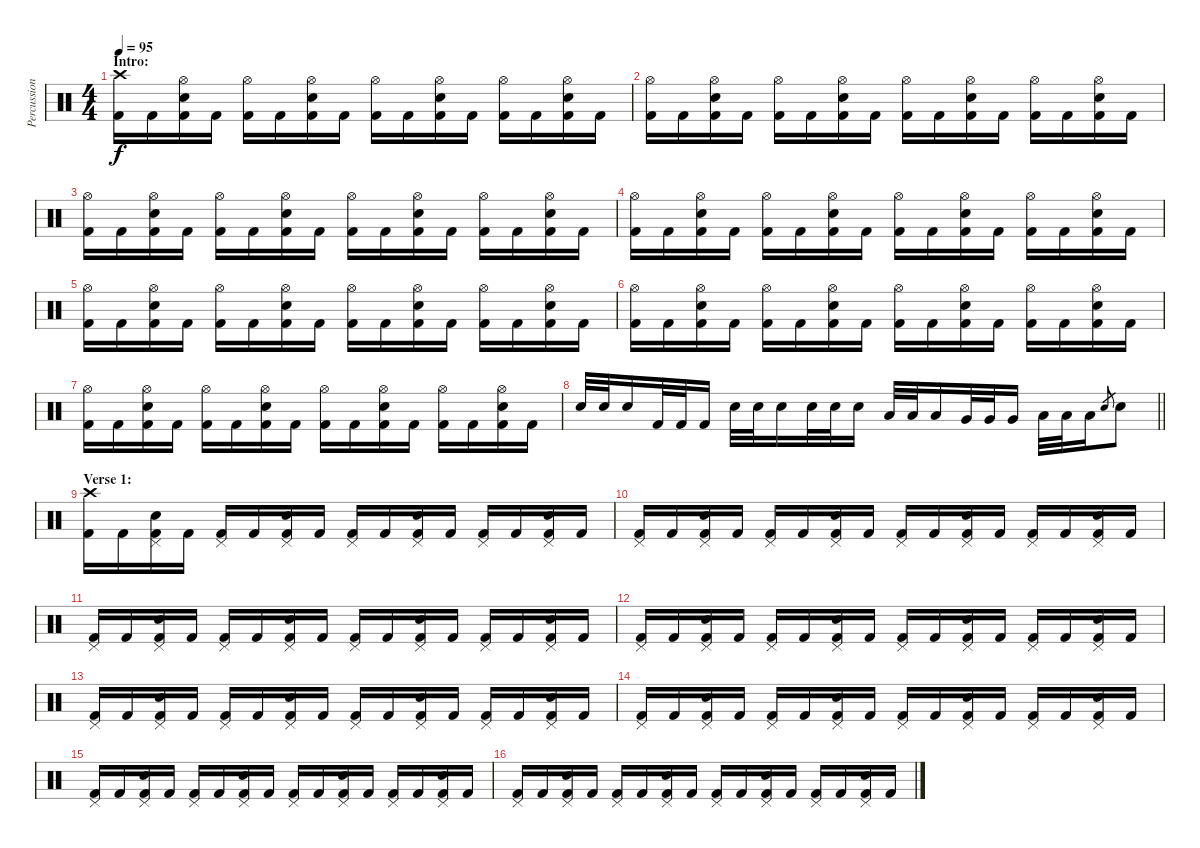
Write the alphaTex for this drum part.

\track ("Percussion" "Percussion") {instrument percussion}
\staff {score}
\articulation defaults
\ts (4 4)
\section ("" "Intro:")
\tempo 95
\clef neutral
\ks c
("Crash high (hit)" "Kick (hit) 2").16{dy f} "Kick (hit) 2".16 ("Hi-Hat (open)" "Electric Snare (hit)" "Kick (hit) 2").16 "Kick (hit) 2".16 ("Hi-Hat (open)" "Kick (hit) 2").16 "Kick (hit) 2".16 ("Hi-Hat (open)" "Electric Snare (hit)" "Kick (hit) 2").16 "Kick (hit) 2".16 ("Hi-Hat (open)" "Kick (hit) 2").16 "Kick (hit) 2".16 ("Hi-Hat (open)" "Electric Snare (hit)" "Kick (hit) 2").16 "Kick (hit) 2".16 ("Hi-Hat (open)" "Kick (hit) 2").16 "Kick (hit) 2".16 ("Hi-Hat (open)" "Electric Snare (hit)" "Kick (hit) 2").16 "Kick (hit) 2".16 |
("Hi-Hat (open)" "Kick (hit) 2").16 "Kick (hit) 2".16 ("Hi-Hat (open)" "Electric Snare (hit)" "Kick (hit) 2").16 "Kick (hit) 2".16 ("Hi-Hat (open)" "Kick (hit) 2").16 "Kick (hit) 2".16 ("Hi-Hat (open)" "Electric Snare (hit)" "Kick (hit) 2").16 "Kick (hit) 2".16 ("Hi-Hat (open)" "Kick (hit) 2").16 "Kick (hit) 2".16 ("Hi-Hat (open)" "Electric Snare (hit)" "Kick (hit) 2").16 "Kick (hit) 2".16 ("Hi-Hat (open)" "Kick (hit) 2").16 "Kick (hit) 2".16 ("Hi-Hat (open)" "Electric Snare (hit)" "Kick (hit) 2").16 "Kick (hit) 2".16 |
("Hi-Hat (open)" "Kick (hit) 2").16 "Kick (hit) 2".16 ("Hi-Hat (open)" "Electric Snare (hit)" "Kick (hit) 2").16 "Kick (hit) 2".16 ("Hi-Hat (open)" "Kick (hit) 2").16 "Kick (hit) 2".16 ("Hi-Hat (open)" "Electric Snare (hit)" "Kick (hit) 2").16 "Kick (hit) 2".16 ("Hi-Hat (open)" "Kick (hit) 2").16 "Kick (hit) 2".16 ("Hi-Hat (open)" "Electric Snare (hit)" "Kick (hit) 2").16 "Kick (hit) 2".16 ("Hi-Hat (open)" "Kick (hit) 2").16 "Kick (hit) 2".16 ("Hi-Hat (open)" "Electric Snare (hit)" "Kick (hit) 2").16 "Kick (hit) 2".16 |
("Hi-Hat (open)" "Kick (hit) 2").16 "Kick (hit) 2".16 ("Hi-Hat (open)" "Electric Snare (hit)" "Kick (hit) 2").16 "Kick (hit) 2".16 ("Hi-Hat (open)" "Kick (hit) 2").16 "Kick (hit) 2".16 ("Hi-Hat (open)" "Electric Snare (hit)" "Kick (hit) 2").16 "Kick (hit) 2".16 ("Hi-Hat (open)" "Kick (hit) 2").16 "Kick (hit) 2".16 ("Hi-Hat (open)" "Electric Snare (hit)" "Kick (hit) 2").16 "Kick (hit) 2".16 ("Hi-Hat (open)" "Kick (hit) 2").16 "Kick (hit) 2".16 ("Hi-Hat (open)" "Electric Snare (hit)" "Kick (hit) 2").16 "Kick (hit) 2".16 |
("Hi-Hat (open)" "Kick (hit) 2").16 "Kick (hit) 2".16 ("Hi-Hat (open)" "Electric Snare (hit)" "Kick (hit) 2").16 "Kick (hit) 2".16 ("Hi-Hat (open)" "Kick (hit) 2").16 "Kick (hit) 2".16 ("Hi-Hat (open)" "Electric Snare (hit)" "Kick (hit) 2").16 "Kick (hit) 2".16 ("Hi-Hat (open)" "Kick (hit) 2").16 "Kick (hit) 2".16 ("Hi-Hat (open)" "Electric Snare (hit)" "Kick (hit) 2").16 "Kick (hit) 2".16 ("Hi-Hat (open)" "Kick (hit) 2").16 "Kick (hit) 2".16 ("Hi-Hat (open)" "Electric Snare (hit)" "Kick (hit) 2").16 "Kick (hit) 2".16 |
("Hi-Hat (open)" "Kick (hit) 2").16 "Kick (hit) 2".16 ("Hi-Hat (open)" "Electric Snare (hit)" "Kick (hit) 2").16 "Kick (hit) 2".16 ("Hi-Hat (open)" "Kick (hit) 2").16 "Kick (hit) 2".16 ("Hi-Hat (open)" "Electric Snare (hit)" "Kick (hit) 2").16 "Kick (hit) 2".16 ("Hi-Hat (open)" "Kick (hit) 2").16 "Kick (hit) 2".16 ("Hi-Hat (open)" "Electric Snare (hit)" "Kick (hit) 2").16 "Kick (hit) 2".16 ("Hi-Hat (open)" "Kick (hit) 2").16 "Kick (hit) 2".16 ("Hi-Hat (open)" "Electric Snare (hit)" "Kick (hit) 2").16 "Kick (hit) 2".16 |
("Hi-Hat (open)" "Kick (hit) 2").16 "Kick (hit) 2".16 ("Hi-Hat (open)" "Electric Snare (hit)" "Kick (hit) 2").16 "Kick (hit) 2".16 ("Hi-Hat (open)" "Kick (hit) 2").16 "Kick (hit) 2".16 ("Hi-Hat (open)" "Electric Snare (hit)" "Kick (hit) 2").16 "Kick (hit) 2".16 ("Hi-Hat (open)" "Kick (hit) 2").16 "Kick (hit) 2".16 ("Hi-Hat (open)" "Electric Snare (hit)" "Kick (hit) 2").16 "Kick (hit) 2".16 ("Hi-Hat (open)" "Kick (hit) 2").16 "Kick (hit) 2".16 ("Hi-Hat (open)" "Electric Snare (hit)" "Kick (hit) 2").16 "Kick (hit) 2".16 |
\barLineRight lightlight "Electric Snare (hit)".32 "Electric Snare (hit)".32 "Electric Snare (hit)".16 "Kick (hit) 2".32 "Kick (hit) 2".32 "Kick (hit) 2".16 "Electric Snare (hit)".32 "Electric Snare (hit)".32 "Electric Snare (hit)".16 "Electric Snare (hit)".32 "Electric Snare (hit)".32 "Electric Snare (hit)".16 "Low Tom (hit)".32 "Low Tom (hit)".32 "Low Tom (hit)".16 "Very Low Tom (hit)".32 "Very Low Tom (hit)".32 "Very Low Tom (hit)".16 "Low Floor Tom (hit)".32 "Low Floor Tom (hit)".32 "Low Floor Tom (hit)".16 "Electric Snare (hit)".8{gr} "Electric Snare (hit)".8
|
\section ("" "Verse 1:")
("Crash high (hit)" "Kick (hit) 2").16 "Kick (hit) 2".16 ("Pedal Hi-Hat (hit)" "Electric Snare (hit)" "Kick (hit) 2").16 "Kick (hit) 2".16 ("Pedal Hi-Hat (hit)" "Kick (hit) 2").16 "Kick (hit) 2".16 ("Pedal Hi-Hat (hit)" "Electric Snare (hit)" "Kick (hit) 2").16 "Kick (hit) 2".16 ("Pedal Hi-Hat (hit)" "Kick (hit) 2").16 "Kick (hit) 2".16 ("Pedal Hi-Hat (hit)" "Electric Snare (hit)" "Kick (hit) 2").16 "Kick (hit) 2".16 ("Pedal Hi-Hat (hit)" "Kick (hit) 2").16 "Kick (hit) 2".16 ("Pedal Hi-Hat (hit)" "Electric Snare (hit)" "Kick (hit) 2").16 "Kick (hit) 2".16 |
("Pedal Hi-Hat (hit)" "Kick (hit) 2").16 "Kick (hit) 2".16 ("Pedal Hi-Hat (hit)" "Electric Snare (hit)" "Kick (hit) 2").16 "Kick (hit) 2".16 ("Pedal Hi-Hat (hit)" "Kick (hit) 2").16 "Kick (hit) 2".16 ("Pedal Hi-Hat (hit)" "Electric Snare (hit)" "Kick (hit) 2").16 "Kick (hit) 2".16 ("Pedal Hi-Hat (hit)" "Kick (hit) 2").16 "Kick (hit) 2".16 ("Pedal Hi-Hat (hit)" "Electric Snare (hit)" "Kick (hit) 2").16 "Kick (hit) 2".16 ("Pedal Hi-Hat (hit)" "Kick (hit) 2").16 "Kick (hit) 2".16 ("Pedal Hi-Hat (hit)" "Electric Snare (hit)" "Kick (hit) 2").16 "Kick (hit) 2".16 |
("Pedal Hi-Hat (hit)" "Kick (hit) 2").16 "Kick (hit) 2".16 ("Pedal Hi-Hat (hit)" "Electric Snare (hit)" "Kick (hit) 2").16 "Kick (hit) 2".16 ("Pedal Hi-Hat (hit)" "Kick (hit) 2").16 "Kick (hit) 2".16 ("Pedal Hi-Hat (hit)" "Electric Snare (hit)" "Kick (hit) 2").16 "Kick (hit) 2".16 ("Pedal Hi-Hat (hit)" "Kick (hit) 2").16 "Kick (hit) 2".16 ("Pedal Hi-Hat (hit)" "Electric Snare (hit)" "Kick (hit) 2").16 "Kick (hit) 2".16 ("Pedal Hi-Hat (hit)" "Kick (hit) 2").16 "Kick (hit) 2".16 ("Pedal Hi-Hat (hit)" "Electric Snare (hit)" "Kick (hit) 2").16 "Kick (hit) 2".16 |
("Pedal Hi-Hat (hit)" "Kick (hit) 2").16 "Kick (hit) 2".16 ("Pedal Hi-Hat (hit)" "Electric Snare (hit)" "Kick (hit) 2").16 "Kick (hit) 2".16 ("Pedal Hi-Hat (hit)" "Kick (hit) 2").16 "Kick (hit) 2".16 ("Pedal Hi-Hat (hit)" "Electric Snare (hit)" "Kick (hit) 2").16 "Kick (hit) 2".16 ("Pedal Hi-Hat (hit)" "Kick (hit) 2").16 "Kick (hit) 2".16 ("Pedal Hi-Hat (hit)" "Electric Snare (hit)" "Kick (hit) 2").16 "Kick (hit) 2".16 ("Pedal Hi-Hat (hit)" "Kick (hit) 2").16 "Kick (hit) 2".16 ("Pedal Hi-Hat (hit)" "Electric Snare (hit)" "Kick (hit) 2").16 "Kick (hit) 2".16 |
("Pedal Hi-Hat (hit)" "Kick (hit) 2").16 "Kick (hit) 2".16 ("Pedal Hi-Hat (hit)" "Electric Snare (hit)" "Kick (hit) 2").16 "Kick (hit) 2".16 ("Pedal Hi-Hat (hit)" "Kick (hit) 2").16 "Kick (hit) 2".16 ("Pedal Hi-Hat (hit)" "Electric Snare (hit)" "Kick (hit) 2").16 "Kick (hit) 2".16 ("Pedal Hi-Hat (hit)" "Kick (hit) 2").16 "Kick (hit) 2".16 ("Pedal Hi-Hat (hit)" "Electric Snare (hit)" "Kick (hit) 2").16 "Kick (hit) 2".16 ("Pedal Hi-Hat (hit)" "Kick (hit) 2").16 "Kick (hit) 2".16 ("Pedal Hi-Hat (hit)" "Electric Snare (hit)" "Kick (hit) 2").16 "Kick (hit) 2".16 |
("Pedal Hi-Hat (hit)" "Kick (hit) 2").16 "Kick (hit) 2".16 ("Pedal Hi-Hat (hit)" "Electric Snare (hit)" "Kick (hit) 2").16 "Kick (hit) 2".16 ("Pedal Hi-Hat (hit)" "Kick (hit) 2").16 "Kick (hit) 2".16 ("Pedal Hi-Hat (hit)" "Electric Snare (hit)" "Kick (hit) 2").16 "Kick (hit) 2".16 ("Pedal Hi-Hat (hit)" "Kick (hit) 2").16 "Kick (hit) 2".16 ("Pedal Hi-Hat (hit)" "Electric Snare (hit)" "Kick (hit) 2").16 "Kick (hit) 2".16 ("Pedal Hi-Hat (hit)" "Kick (hit) 2").16 "Kick (hit) 2".16 ("Pedal Hi-Hat (hit)" "Electric Snare (hit)" "Kick (hit) 2").16 "Kick (hit) 2".16 |
("Pedal Hi-Hat (hit)" "Kick (hit) 2").16 "Kick (hit) 2".16 ("Pedal Hi-Hat (hit)" "Electric Snare (hit)" "Kick (hit) 2").16 "Kick (hit) 2".16 ("Pedal Hi-Hat (hit)" "Kick (hit) 2").16 "Kick (hit) 2".16 ("Pedal Hi-Hat (hit)" "Electric Snare (hit)" "Kick (hit) 2").16 "Kick (hit) 2".16 ("Pedal Hi-Hat (hit)" "Kick (hit) 2").16 "Kick (hit) 2".16 ("Pedal Hi-Hat (hit)" "Electric Snare (hit)" "Kick (hit) 2").16 "Kick (hit) 2".16 ("Pedal Hi-Hat (hit)" "Kick (hit) 2").16 "Kick (hit) 2".16 ("Pedal Hi-Hat (hit)" "Electric Snare (hit)" "Kick (hit) 2").16 "Kick (hit) 2".16 |
("Pedal Hi-Hat (hit)" "Kick (hit) 2").16 "Kick (hit) 2".16 ("Pedal Hi-Hat (hit)" "Electric Snare (hit)" "Kick (hit) 2").16 "Kick (hit) 2".16 ("Pedal Hi-Hat (hit)" "Kick (hit) 2").16 "Kick (hit) 2".16 ("Pedal Hi-Hat (hit)" "Electric Snare (hit)" "Kick (hit) 2").16 "Kick (hit) 2".16 ("Pedal Hi-Hat (hit)" "Kick (hit) 2").16 "Kick (hit) 2".16 ("Pedal Hi-Hat (hit)" "Electric Snare (hit)" "Kick (hit) 2").16 "Kick (hit) 2".16 ("Pedal Hi-Hat (hit)" "Kick (hit) 2").16 "Kick (hit) 2".16 ("Pedal Hi-Hat (hit)" "Electric Snare (hit)" "Kick (hit) 2").16 "Kick (hit) 2".16
